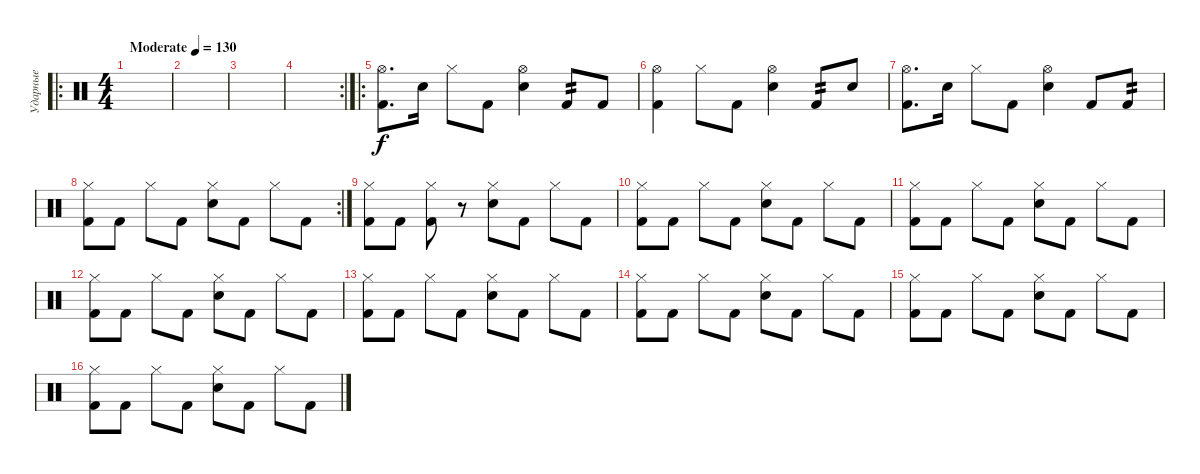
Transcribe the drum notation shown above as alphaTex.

\track ("Ударные" "Ударные") {instrument percussion}
\staff {score}
\articulation defaults
\ro
\ts (4 4)
\tempo (130 "Moderate")
\clef neutral
\ks c
|
|
|
\rc 2
|
\ro
("Hi-Hat (open)" "Kick (hit) 2").8{d} "Snare (hit) 2".16 "Hi-Hat (closed)".8 "Kick (hit) 2".8 ("Hi-Hat (open)" "Snare (hit) 2").4 "Kick (hit) 2".8{tp 2} "Kick (hit) 2".8 |
("Hi-Hat (open)" "Kick (hit) 2").4 "Hi-Hat (closed)".8 "Kick (hit) 2".8 ("Hi-Hat (open)" "Snare (hit) 2").4 "Kick (hit) 2".8{tp 2} "Snare (hit) 2".8 |
("Hi-Hat (open)" "Kick (hit) 2").8{d} "Snare (hit) 2".16 "Hi-Hat (closed)".8 "Kick (hit) 2".8 ("Hi-Hat (open)" "Snare (hit) 2").4 "Kick (hit) 2".8 "Kick (hit) 2".8{tp 2} |
\rc 2
("Hi-Hat (closed)" "Kick (hit) 2").8 "Kick (hit) 2".8 "Hi-Hat (closed)".8 "Kick (hit) 2".8 ("Hi-Hat (closed)" "Snare (hit) 2").8 "Kick (hit) 2".8 "Hi-Hat (closed)".8 "Kick (hit) 2".8 |
("Hi-Hat (closed)" "Kick (hit) 2").8 "Kick (hit) 2".8 ("Hi-Hat (closed)" "Kick (hit) 2").8 r.8 ("Hi-Hat (closed)" "Snare (hit) 2").8 "Kick (hit) 2".8 "Hi-Hat (closed)".8 "Kick (hit) 2".8 |
("Hi-Hat (closed)" "Kick (hit) 2").8 "Kick (hit) 2".8 "Hi-Hat (closed)".8 "Kick (hit) 2".8 ("Hi-Hat (closed)" "Snare (hit) 2").8 "Kick (hit) 2".8 "Hi-Hat (closed)".8 "Kick (hit) 2".8 |
("Hi-Hat (closed)" "Kick (hit) 2").8 "Kick (hit) 2".8 "Hi-Hat (closed)".8 "Kick (hit) 2".8 ("Hi-Hat (closed)" "Snare (hit) 2").8 "Kick (hit) 2".8 "Hi-Hat (closed)".8 "Kick (hit) 2".8 |
("Hi-Hat (closed)" "Kick (hit) 2").8 "Kick (hit) 2".8 "Hi-Hat (closed)".8 "Kick (hit) 2".8 ("Hi-Hat (closed)" "Snare (hit) 2").8 "Kick (hit) 2".8 "Hi-Hat (closed)".8 "Kick (hit) 2".8 |
("Hi-Hat (closed)" "Kick (hit) 2").8 "Kick (hit) 2".8 "Hi-Hat (closed)".8 "Kick (hit) 2".8 ("Hi-Hat (closed)" "Snare (hit) 2").8 "Kick (hit) 2".8 "Hi-Hat (closed)".8 "Kick (hit) 2".8 |
("Hi-Hat (closed)" "Kick (hit) 2").8 "Kick (hit) 2".8 "Hi-Hat (closed)".8 "Kick (hit) 2".8 ("Hi-Hat (closed)" "Snare (hit) 2").8 "Kick (hit) 2".8 "Hi-Hat (closed)".8 "Kick (hit) 2".8 |
("Hi-Hat (closed)" "Kick (hit) 2").8 "Kick (hit) 2".8 "Hi-Hat (closed)".8 "Kick (hit) 2".8 ("Hi-Hat (closed)" "Snare (hit) 2").8 "Kick (hit) 2".8 "Hi-Hat (closed)".8 "Kick (hit) 2".8 |
("Hi-Hat (closed)" "Kick (hit) 2").8 "Kick (hit) 2".8 "Hi-Hat (closed)".8 "Kick (hit) 2".8 ("Hi-Hat (closed)" "Snare (hit) 2").8 "Kick (hit) 2".8 "Hi-Hat (closed)".8 "Kick (hit) 2".8
